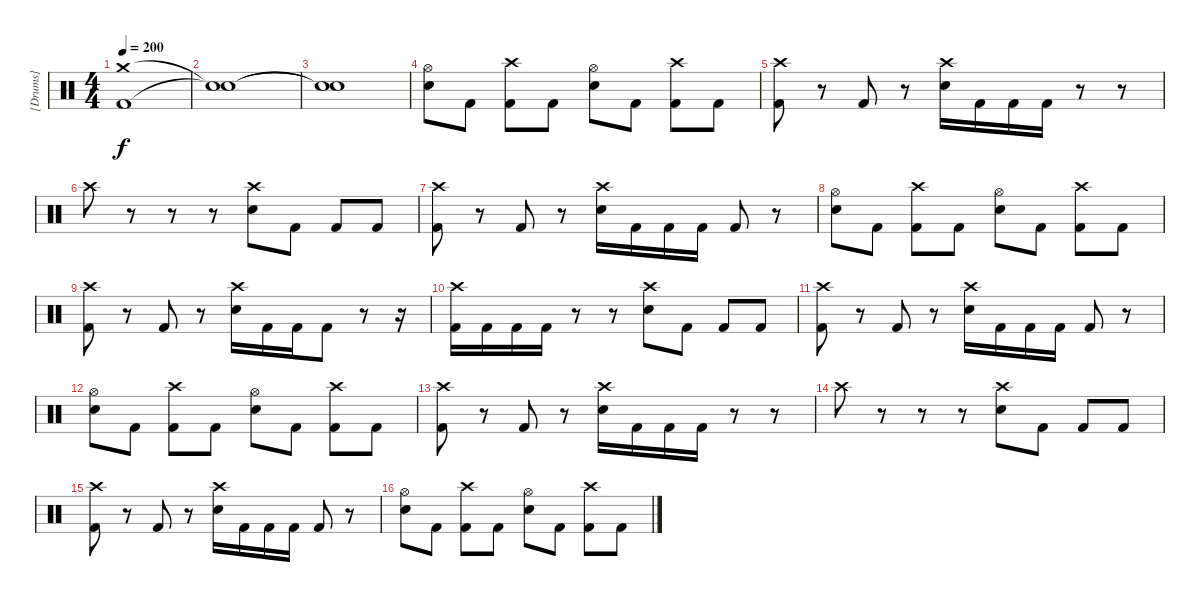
\track ("[Drums]" "[Drums]") {instrument percussion}
\staff {score}
\articulation defaults
\ts (4 4)
\tempo 200
\clef neutral
\ks c
("Crash medium (hit)" "Kick (hit) 2").1{dy f} |
("Snare (hit)"{t} "Snare (hit)"{t}).1 |
("Snare (hit)"{t} "Snare (hit)"{t}).1 |
("Hi-Hat (open)" "Electric Snare (hit)").8 "Kick (hit) 2".8 ("Crash high (hit)" "Kick (hit) 2").8 "Kick (hit) 2".8 ("Hi-Hat (open)" "Electric Snare (hit)").8 "Kick (hit) 2".8 ("Crash high (hit)" "Kick (hit) 2").8 "Kick (hit) 2".8 |
("Crash high (hit)" "Kick (hit) 2").8 r.8 "Kick (hit) 2".8 r.8 ("Crash high (hit)" "Electric Snare (hit)").16 "Kick (hit) 2".16 "Kick (hit) 2".16 "Kick (hit) 2".16 r.8 r.8 |
"Crash high (hit)".8 r.8 r.8 r.8 ("Crash high (hit)" "Electric Snare (hit)").8 "Kick (hit) 2".8 "Kick (hit) 2".8 "Kick (hit) 2".8 |
("Crash high (hit)" "Kick (hit) 2").8 r.8 "Kick (hit) 2".8 r.8 ("Crash high (hit)" "Electric Snare (hit)").16 "Kick (hit) 2".16 "Kick (hit) 2".16 "Kick (hit) 2".16 "Kick (hit) 2".8 r.8 |
("Hi-Hat (open)" "Electric Snare (hit)").8 "Kick (hit) 2".8 ("Crash high (hit)" "Kick (hit) 2").8 "Kick (hit) 2".8 ("Hi-Hat (open)" "Electric Snare (hit)").8 "Kick (hit) 2".8 ("Crash high (hit)" "Kick (hit) 2").8 "Kick (hit) 2".8 |
("Crash high (hit)" "Kick (hit) 2").8 r.8 "Kick (hit) 2".8 r.8 ("Crash high (hit)" "Electric Snare (hit)").16 "Kick (hit) 2".16 "Kick (hit) 2".16 "Kick (hit) 2".8 r.8 r.16 |
("Crash high (hit)" "Kick (hit) 2").16 "Kick (hit) 2".16 "Kick (hit) 2".16 "Kick (hit) 2".16 r.8 r.8 ("Crash high (hit)" "Electric Snare (hit)").8 "Kick (hit) 2".8 "Kick (hit) 2".8 "Kick (hit) 2".8 |
("Crash high (hit)" "Kick (hit) 2").8 r.8 "Kick (hit) 2".8 r.8 ("Crash high (hit)" "Electric Snare (hit)").16 "Kick (hit) 2".16 "Kick (hit) 2".16 "Kick (hit) 2".16 "Kick (hit) 2".8 r.8 |
("Hi-Hat (open)" "Electric Snare (hit)").8 "Kick (hit) 2".8 ("Crash high (hit)" "Kick (hit) 2").8 "Kick (hit) 2".8 ("Hi-Hat (open)" "Electric Snare (hit)").8 "Kick (hit) 2".8 ("Crash high (hit)" "Kick (hit) 2").8 "Kick (hit) 2".8 |
("Crash high (hit)" "Kick (hit) 2").8 r.8 "Kick (hit) 2".8 r.8 ("Crash high (hit)" "Electric Snare (hit)").16 "Kick (hit) 2".16 "Kick (hit) 2".16 "Kick (hit) 2".16 r.8 r.8 |
"Crash high (hit)".8 r.8 r.8 r.8 ("Crash high (hit)" "Electric Snare (hit)").8 "Kick (hit) 2".8 "Kick (hit) 2".8 "Kick (hit) 2".8 |
("Crash high (hit)" "Kick (hit) 2").8 r.8 "Kick (hit) 2".8 r.8 ("Crash high (hit)" "Electric Snare (hit)").16 "Kick (hit) 2".16 "Kick (hit) 2".16 "Kick (hit) 2".16 "Kick (hit) 2".8 r.8 |
("Hi-Hat (open)" "Electric Snare (hit)").8 "Kick (hit) 2".8 ("Crash high (hit)" "Kick (hit) 2").8 "Kick (hit) 2".8 ("Hi-Hat (open)" "Electric Snare (hit)").8 "Kick (hit) 2".8 ("Crash high (hit)" "Kick (hit) 2").8 "Kick (hit) 2".8
